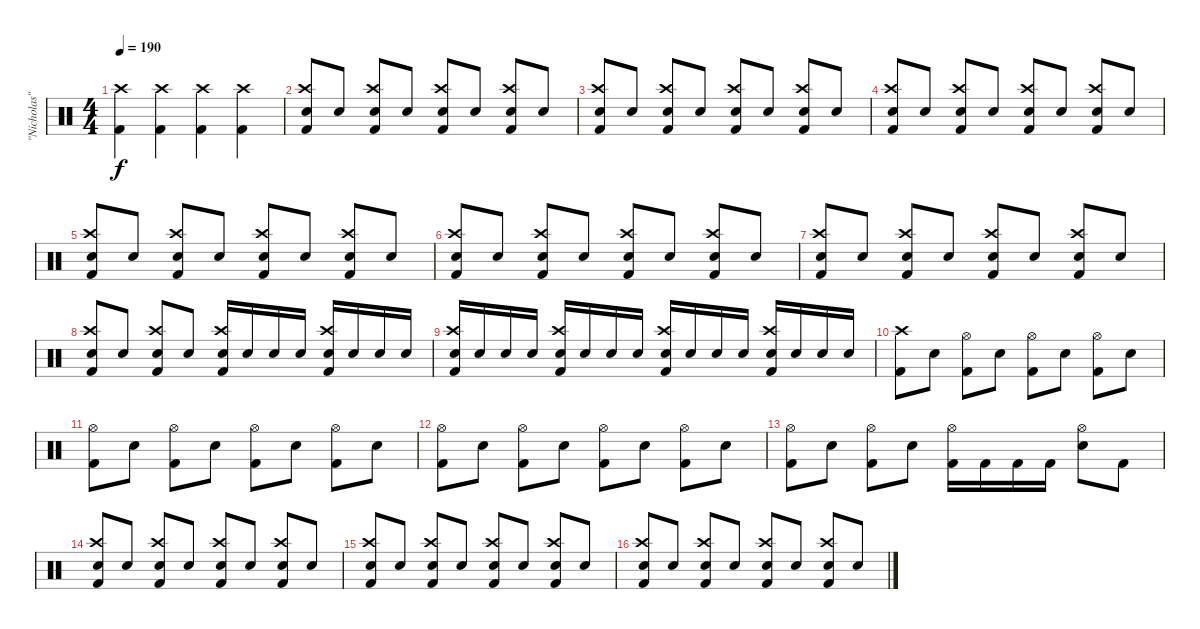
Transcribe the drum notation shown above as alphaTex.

\track ("\"Nicholas\"" "\"Nicholas\"") {instrument percussion}
\staff {score}
\articulation defaults
\ts (4 4)
\tempo 190
\clef neutral
\ks c
("Kick (hit) 2" "Crash high (hit)").4{dy f} ("Kick (hit) 2" "Crash high (hit)").4 ("Kick (hit) 2" "Crash high (hit)").4 ("Kick (hit) 2" "Crash high (hit)").4 |
("Kick (hit) 2" "Snare (hit) 2" "Crash high (hit)").8 "Snare (hit) 2".8 ("Kick (hit) 2" "Snare (hit) 2" "Crash high (hit)").8 "Snare (hit) 2".8 ("Kick (hit) 2" "Snare (hit) 2" "Crash high (hit)").8 "Snare (hit) 2".8 ("Kick (hit) 2" "Snare (hit) 2" "Crash high (hit)").8 "Snare (hit) 2".8 |
("Kick (hit) 2" "Snare (hit) 2" "Crash high (hit)").8 "Snare (hit) 2".8 ("Kick (hit) 2" "Snare (hit) 2" "Crash high (hit)").8 "Snare (hit) 2".8 ("Kick (hit) 2" "Snare (hit) 2" "Crash high (hit)").8 "Snare (hit) 2".8 ("Kick (hit) 2" "Snare (hit) 2" "Crash high (hit)").8 "Snare (hit) 2".8 |
("Kick (hit) 2" "Snare (hit) 2" "Crash high (hit)").8 "Snare (hit) 2".8 ("Kick (hit) 2" "Snare (hit) 2" "Crash high (hit)").8 "Snare (hit) 2".8 ("Kick (hit) 2" "Snare (hit) 2" "Crash high (hit)").8 "Snare (hit) 2".8 ("Kick (hit) 2" "Snare (hit) 2" "Crash high (hit)").8 "Snare (hit) 2".8 |
("Kick (hit) 2" "Snare (hit) 2" "Crash high (hit)").8 "Snare (hit) 2".8 ("Kick (hit) 2" "Snare (hit) 2" "Crash high (hit)").8 "Snare (hit) 2".8 ("Kick (hit) 2" "Snare (hit) 2" "Crash high (hit)").8 "Snare (hit) 2".8 ("Kick (hit) 2" "Snare (hit) 2" "Crash high (hit)").8 "Snare (hit) 2".8 |
("Kick (hit) 2" "Snare (hit) 2" "Crash high (hit)").8 "Snare (hit) 2".8 ("Kick (hit) 2" "Snare (hit) 2" "Crash high (hit)").8 "Snare (hit) 2".8 ("Kick (hit) 2" "Snare (hit) 2" "Crash high (hit)").8 "Snare (hit) 2".8 ("Kick (hit) 2" "Snare (hit) 2" "Crash high (hit)").8 "Snare (hit) 2".8 |
("Kick (hit) 2" "Snare (hit) 2" "Crash high (hit)").8 "Snare (hit) 2".8 ("Kick (hit) 2" "Snare (hit) 2" "Crash high (hit)").8 "Snare (hit) 2".8 ("Kick (hit) 2" "Snare (hit) 2" "Crash high (hit)").8 "Snare (hit) 2".8 ("Kick (hit) 2" "Snare (hit) 2" "Crash high (hit)").8 "Snare (hit) 2".8 |
("Kick (hit) 2" "Snare (hit) 2" "Crash high (hit)").8 "Snare (hit) 2".8 ("Kick (hit) 2" "Snare (hit) 2" "Crash high (hit)").8 "Snare (hit) 2".8 ("Kick (hit) 2" "Snare (hit) 2" "Crash high (hit)").16 "Snare (hit) 2".16 "Snare (hit) 2".16 "Snare (hit) 2".16 ("Kick (hit) 2" "Snare (hit) 2" "Crash high (hit)").16 "Snare (hit) 2".16 "Snare (hit) 2".16 "Snare (hit) 2".16 |
("Kick (hit) 2" "Snare (hit) 2" "Crash high (hit)").16 "Snare (hit) 2".16 "Snare (hit) 2".16 "Snare (hit) 2".16 ("Kick (hit) 2" "Snare (hit) 2" "Crash high (hit)").16 "Snare (hit) 2".16 "Snare (hit) 2".16 "Snare (hit) 2".16 ("Kick (hit) 2" "Snare (hit) 2" "Crash high (hit)").16 "Snare (hit) 2".16 "Snare (hit) 2".16 "Snare (hit) 2".16 ("Kick (hit) 2" "Snare (hit) 2" "Crash high (hit)").16 "Snare (hit) 2".16 "Snare (hit) 2".16 "Snare (hit) 2".16 |
("Kick (hit) 2" "Crash high (hit)").8 "Snare (hit) 2".8 ("Kick (hit) 2" "Hi-Hat (open)").8 "Snare (hit) 2".8 ("Kick (hit) 2" "Hi-Hat (open)").8 "Snare (hit) 2".8 ("Kick (hit) 2" "Hi-Hat (open)").8 "Snare (hit) 2".8 |
("Kick (hit) 2" "Hi-Hat (open)").8 "Snare (hit) 2".8 ("Kick (hit) 2" "Hi-Hat (open)").8 "Snare (hit) 2".8 ("Kick (hit) 2" "Hi-Hat (open)").8 "Snare (hit) 2".8 ("Kick (hit) 2" "Hi-Hat (open)").8 "Snare (hit) 2".8 |
("Kick (hit) 2" "Hi-Hat (open)").8 "Snare (hit) 2".8 ("Kick (hit) 2" "Hi-Hat (open)").8 "Snare (hit) 2".8 ("Kick (hit) 2" "Hi-Hat (open)").8 "Snare (hit) 2".8 ("Kick (hit) 2" "Hi-Hat (open)").8 "Snare (hit) 2".8 |
("Kick (hit) 2" "Hi-Hat (open)").8 "Snare (hit) 2".8 ("Kick (hit) 2" "Hi-Hat (open)").8 "Snare (hit) 2".8 ("Kick (hit) 2" "Hi-Hat (open)").16 "Kick (hit) 2".16 "Kick (hit) 2".16 "Kick (hit) 2".16 ("Snare (hit) 2" "Hi-Hat (open)").8 "Kick (hit) 2".8 |
("Kick (hit) 2" "Snare (hit) 2" "Crash high (hit)").8 "Snare (hit) 2".8 ("Kick (hit) 2" "Snare (hit) 2" "Crash high (hit)").8 "Snare (hit) 2".8 ("Kick (hit) 2" "Snare (hit) 2" "Crash high (hit)").8 "Snare (hit) 2".8 ("Kick (hit) 2" "Snare (hit) 2" "Crash high (hit)").8 "Snare (hit) 2".8 |
("Kick (hit) 2" "Snare (hit) 2" "Crash high (hit)").8 "Snare (hit) 2".8 ("Kick (hit) 2" "Snare (hit) 2" "Crash high (hit)").8 "Snare (hit) 2".8 ("Kick (hit) 2" "Snare (hit) 2" "Crash high (hit)").8 "Snare (hit) 2".8 ("Kick (hit) 2" "Snare (hit) 2" "Crash high (hit)").8 "Snare (hit) 2".8 |
("Kick (hit) 2" "Snare (hit) 2" "Crash high (hit)").8 "Snare (hit) 2".8 ("Kick (hit) 2" "Snare (hit) 2" "Crash high (hit)").8 "Snare (hit) 2".8 ("Kick (hit) 2" "Snare (hit) 2" "Crash high (hit)").8 "Snare (hit) 2".8 ("Kick (hit) 2" "Snare (hit) 2" "Crash high (hit)").8 "Snare (hit) 2".8
